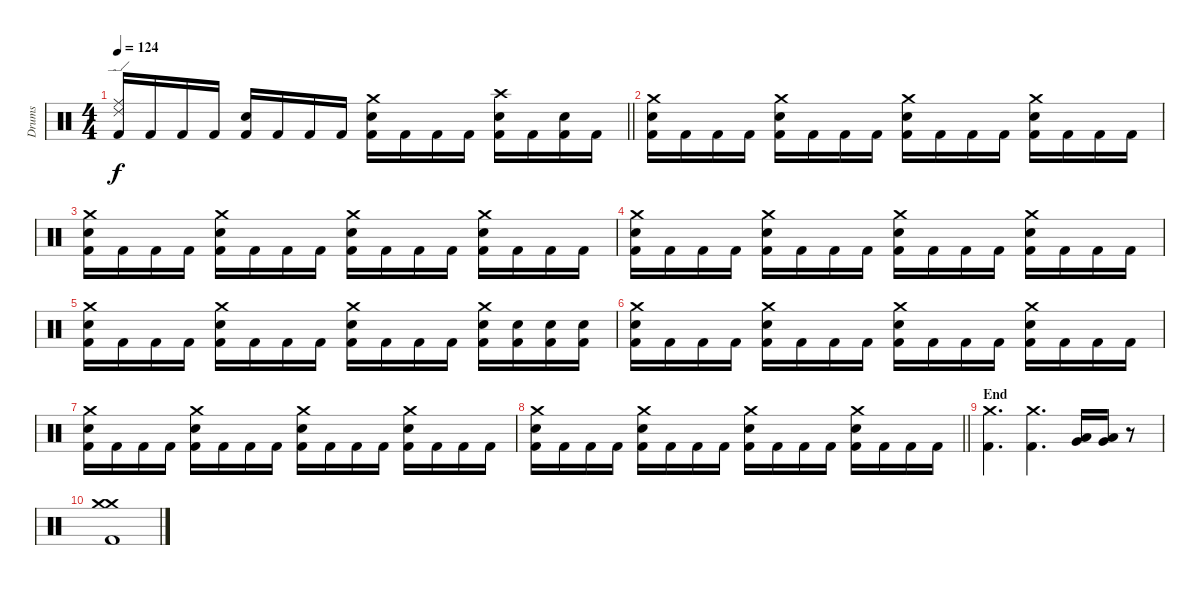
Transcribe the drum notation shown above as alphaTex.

\track ("Drums" "Drums") {instrument percussion}
\staff {score}
\articulation defaults
\ts (4 4)
\tempo 124
\clef neutral
\barLineRight lightlight
\ks c
("Kick (hit) 2" "Ride (middle)" "Ride (edge) 2").16{dy f} "Kick (hit) 2".16 "Kick (hit) 2".16 "Kick (hit) 2".16 ("Kick (hit) 2" "Snare (hit) 2").16 "Kick (hit) 2".16 "Kick (hit) 2".16 "Kick (hit) 2".16 ("Kick (hit) 2" "Snare (hit) 2" "Crash medium (hit)").16 "Kick (hit) 2".16 "Kick (hit) 2".16 "Kick (hit) 2".16 ("Kick (hit) 2" "Snare (hit) 2" "Crash high (hit)").16 "Kick (hit) 2".16 ("Kick (hit) 2" "Snare (hit) 2").16 "Kick (hit) 2".16 |
\section ("" "")
("Kick (hit) 2" "Snare (hit) 2" "Crash medium (hit)").16 "Kick (hit) 2".16 "Kick (hit) 2".16 "Kick (hit) 2".16 ("Kick (hit) 2" "Snare (hit) 2" "Crash medium (hit)").16 "Kick (hit) 2".16 "Kick (hit) 2".16 "Kick (hit) 2".16 ("Kick (hit) 2" "Snare (hit) 2" "Crash medium (hit)").16 "Kick (hit) 2".16 "Kick (hit) 2".16 "Kick (hit) 2".16 ("Kick (hit) 2" "Snare (hit) 2" "Crash medium (hit)").16 "Kick (hit) 2".16 "Kick (hit) 2".16 "Kick (hit) 2".16 |
("Kick (hit) 2" "Snare (hit) 2" "Crash medium (hit)").16 "Kick (hit) 2".16 "Kick (hit) 2".16 "Kick (hit) 2".16 ("Kick (hit) 2" "Snare (hit) 2" "Crash medium (hit)").16 "Kick (hit) 2".16 "Kick (hit) 2".16 "Kick (hit) 2".16 ("Kick (hit) 2" "Snare (hit) 2" "Crash medium (hit)").16 "Kick (hit) 2".16 "Kick (hit) 2".16 "Kick (hit) 2".16 ("Kick (hit) 2" "Snare (hit) 2" "Crash medium (hit)").16 "Kick (hit) 2".16 "Kick (hit) 2".16 "Kick (hit) 2".16 |
("Kick (hit) 2" "Snare (hit) 2" "Crash medium (hit)").16 "Kick (hit) 2".16 "Kick (hit) 2".16 "Kick (hit) 2".16 ("Kick (hit) 2" "Snare (hit) 2" "Crash medium (hit)").16 "Kick (hit) 2".16 "Kick (hit) 2".16 "Kick (hit) 2".16 ("Kick (hit) 2" "Snare (hit) 2" "Crash medium (hit)").16 "Kick (hit) 2".16 "Kick (hit) 2".16 "Kick (hit) 2".16 ("Kick (hit) 2" "Snare (hit) 2" "Crash medium (hit)").16 "Kick (hit) 2".16 "Kick (hit) 2".16 "Kick (hit) 2".16 |
("Kick (hit) 2" "Snare (hit) 2" "Crash medium (hit)").16 "Kick (hit) 2".16 "Kick (hit) 2".16 "Kick (hit) 2".16 ("Kick (hit) 2" "Snare (hit) 2" "Crash medium (hit)").16 "Kick (hit) 2".16 "Kick (hit) 2".16 "Kick (hit) 2".16 ("Kick (hit) 2" "Snare (hit) 2" "Crash medium (hit)").16 "Kick (hit) 2".16 "Kick (hit) 2".16 "Kick (hit) 2".16 ("Kick (hit) 2" "Snare (hit) 2" "Crash medium (hit)").16 ("Kick (hit) 2" "Snare (hit) 2").16 ("Kick (hit) 2" "Snare (hit) 2").16 ("Kick (hit) 2" "Snare (hit) 2").16 |
("Kick (hit) 2" "Snare (hit) 2" "Crash medium (hit)").16 "Kick (hit) 2".16 "Kick (hit) 2".16 "Kick (hit) 2".16 ("Kick (hit) 2" "Snare (hit) 2" "Crash medium (hit)").16 "Kick (hit) 2".16 "Kick (hit) 2".16 "Kick (hit) 2".16 ("Kick (hit) 2" "Snare (hit) 2" "Crash medium (hit)").16 "Kick (hit) 2".16 "Kick (hit) 2".16 "Kick (hit) 2".16 ("Kick (hit) 2" "Snare (hit) 2" "Crash medium (hit)").16 "Kick (hit) 2".16 "Kick (hit) 2".16 "Kick (hit) 2".16 |
("Kick (hit) 2" "Snare (hit) 2" "Crash medium (hit)").16 "Kick (hit) 2".16 "Kick (hit) 2".16 "Kick (hit) 2".16 ("Kick (hit) 2" "Snare (hit) 2" "Crash medium (hit)").16 "Kick (hit) 2".16 "Kick (hit) 2".16 "Kick (hit) 2".16 ("Kick (hit) 2" "Snare (hit) 2" "Crash medium (hit)").16 "Kick (hit) 2".16 "Kick (hit) 2".16 "Kick (hit) 2".16 ("Kick (hit) 2" "Snare (hit) 2" "Crash medium (hit)").16 "Kick (hit) 2".16 "Kick (hit) 2".16 "Kick (hit) 2".16 |
\barLineRight lightlight
("Kick (hit) 2" "Snare (hit) 2" "Crash medium (hit)").16 "Kick (hit) 2".16 "Kick (hit) 2".16 "Kick (hit) 2".16 ("Kick (hit) 2" "Snare (hit) 2" "Crash medium (hit)").16 "Kick (hit) 2".16 "Kick (hit) 2".16 "Kick (hit) 2".16 ("Kick (hit) 2" "Snare (hit) 2" "Crash medium (hit)").16 "Kick (hit) 2".16 "Kick (hit) 2".16 "Kick (hit) 2".16 ("Kick (hit) 2" "Snare (hit) 2" "Crash medium (hit)").16 "Kick (hit) 2".16 "Kick (hit) 2".16 "Kick (hit) 2".16 |
\section ("" "End")
("Kick (hit) 2" "Crash medium (hit)").4{d} ("Kick (hit) 2" "Crash medium (hit)").4{d} ("Low Tom (hit)" "Very Low Tom (hit)").16 ("Very Low Tom (hit)" "Low Floor Tom (hit)").16 r.8 |
("Kick (hit) 2" "Crash medium (hit)" "Crash medium (hit)").1
